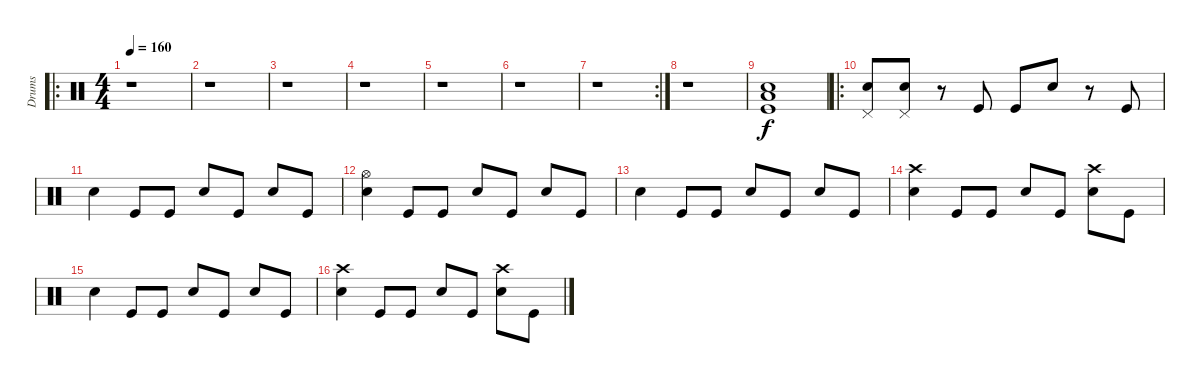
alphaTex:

\track ("Drums" "Drums") {instrument percussion}
\staff {score}
\articulation defaults
\ro
\ts (4 4)
\tempo 160
\clef neutral
\ks c
r.1{dy f} |
r.1 |
r.1 |
r.1 |
r.1 |
r.1 |
\rc 2
r.1 |
r.1 |
("Snare (hit) 2" "Low Tom (hit)" "Kick (hit)").1 |
\ro
("Pedal Hi-Hat (hit)" "Snare (hit) 2").8 ("Pedal Hi-Hat (hit)" "Snare (hit) 2").8 r.8 "Kick (hit)".8 "Kick (hit)".8 "Snare (hit) 2".8 r.8 "Kick (hit)".8 |
"Snare (hit) 2".4 "Kick (hit)".8 "Kick (hit)".8 "Snare (hit) 2".8 "Kick (hit)".8 "Snare (hit) 2".8 "Kick (hit)".8 |
("Hi-Hat (open)" "Snare (hit) 2").4 "Kick (hit)".8 "Kick (hit)".8 "Snare (hit) 2".8 "Kick (hit)".8 "Snare (hit) 2".8 "Kick (hit)".8 |
"Snare (hit) 2".4 "Kick (hit)".8 "Kick (hit)".8 "Snare (hit) 2".8 "Kick (hit)".8 "Snare (hit) 2".8 "Kick (hit)".8 |
("Crash high (hit)" "Snare (hit) 2").4 "Kick (hit)".8 "Kick (hit)".8 "Snare (hit) 2".8 "Kick (hit)".8 ("Crash high (hit)" "Snare (hit) 2").8 "Kick (hit)".8 |
"Snare (hit) 2".4 "Kick (hit)".8 "Kick (hit)".8 "Snare (hit) 2".8 "Kick (hit)".8 "Snare (hit) 2".8 "Kick (hit)".8 |
("Crash high (hit)" "Snare (hit) 2").4 "Kick (hit)".8 "Kick (hit)".8 "Snare (hit) 2".8 "Kick (hit)".8 ("Crash high (hit)" "Snare (hit) 2").8 "Kick (hit)".8
